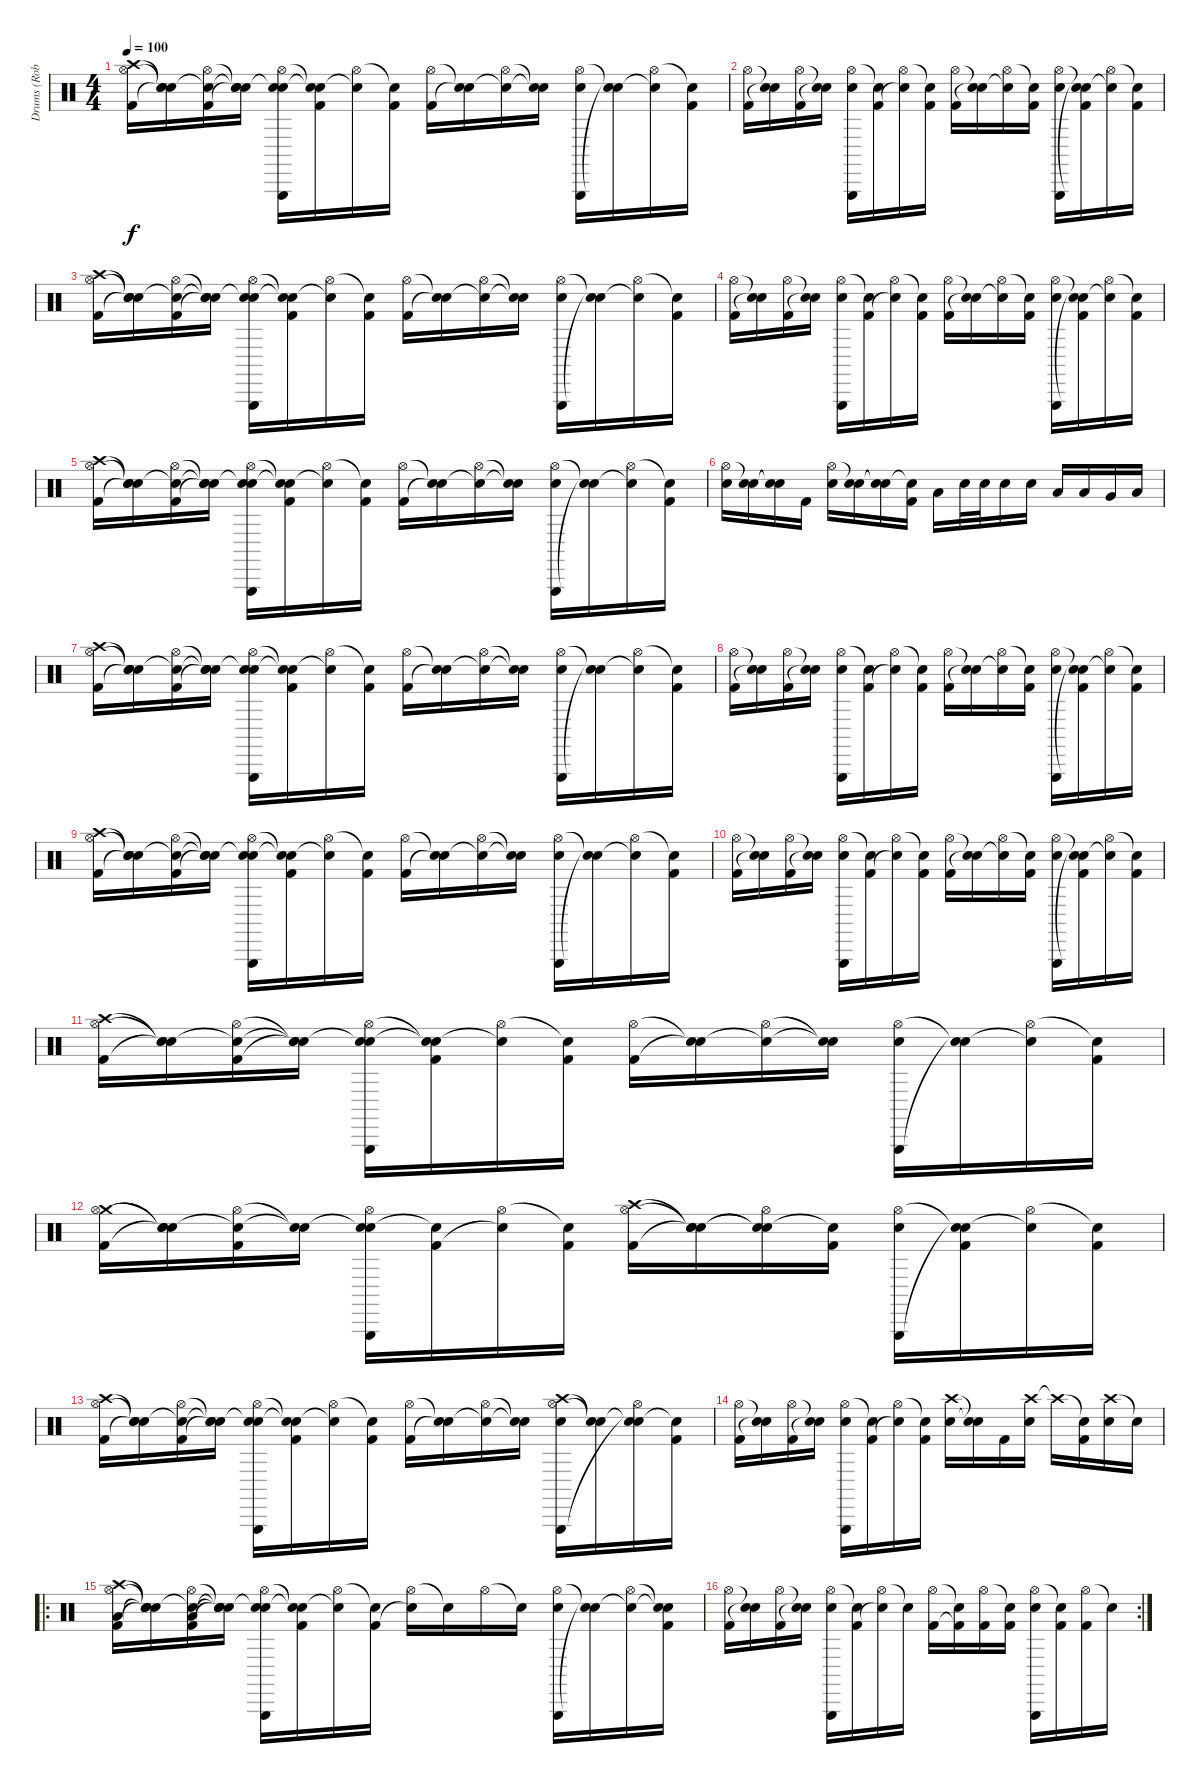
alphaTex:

\track ("Drums (Rob Bourdon)" "Drums (Rob") {instrument percussion}
\staff {score}
\articulation defaults
\ts (4 4)
\tempo 100
\clef neutral
\ks c
("Crash high (hit)" "Hi-Hat (open)" "Kick (hit) 2").16{dy f} ("Snare (hit)"{t} "Snare (hit)"{t} "Snare (hit)"{t}).16 ("Snare (hit)"{t} "Hi-Hat (open)" "Kick (hit) 2").16 ("Snare (hit)"{t} "Snare (hit)"{t} "Snare (hit)"{t}).16 ("Snare (hit)"{t} "Hi-Hat (open)" "Triangle (hit)" "Electric Snare (hit)").16 ("Snare (hit)"{t} "Snare (hit)"{t} "Kick (hit) 2").16 ("Hi-Hat (open)" "Snare (hit)"{t}).16 ("Snare (hit)"{t} "Kick (hit) 2").16 ("Hi-Hat (open)" "Kick (hit) 2").16 ("Snare (hit)"{t} "Snare (hit)"{t}).16 ("Hi-Hat (open)" "Snare (hit)"{t}).16 ("Snare (hit)"{t} "Snare (hit)"{t}).16 ("Hi-Hat (open)" "Triangle (hit)" "Electric Snare (hit)").16 ("Snare (hit)"{t} "Snare (hit)"{t}).16 ("Hi-Hat (open)" "Snare (hit)"{t}).16 ("Snare (hit)"{t} "Kick (hit) 2").16 |
("Hi-Hat (open)" "Kick (hit) 2").16 ("Snare (hit)"{t} "Snare (hit)"{t}).16 ("Hi-Hat (open)" "Kick (hit) 2").16 ("Snare (hit)"{t} "Snare (hit)"{t}).16 ("Hi-Hat (open)" "Triangle (hit)" "Electric Snare (hit)").16 ("Snare (hit)"{t} "Kick (hit) 2").16 ("Hi-Hat (open)" "Snare (hit)"{t}).16 ("Snare (hit)"{t} "Kick (hit) 2").16 ("Hi-Hat (open)" "Kick (hit) 2").16 ("Snare (hit)"{t} "Snare (hit)"{t}).16 ("Hi-Hat (open)" "Snare (hit)"{t}).16 ("Snare (hit)"{t} "Kick (hit) 2").16 ("Hi-Hat (open)" "Triangle (hit)" "Electric Snare (hit)").16 ("Snare (hit)"{t} "Snare (hit)"{t} "Kick (hit) 2").16 ("Hi-Hat (open)" "Snare (hit)"{t}).16 ("Snare (hit)"{t} "Kick (hit) 2").16 |
("Crash high (hit)" "Hi-Hat (open)" "Kick (hit) 2").16 ("Snare (hit)"{t} "Snare (hit)"{t} "Snare (hit)"{t}).16 ("Snare (hit)"{t} "Hi-Hat (open)" "Kick (hit) 2").16 ("Snare (hit)"{t} "Snare (hit)"{t} "Snare (hit)"{t}).16 ("Snare (hit)"{t} "Hi-Hat (open)" "Triangle (hit)" "Electric Snare (hit)").16 ("Snare (hit)"{t} "Snare (hit)"{t} "Kick (hit) 2").16 ("Hi-Hat (open)" "Snare (hit)"{t}).16 ("Snare (hit)"{t} "Kick (hit) 2").16 ("Hi-Hat (open)" "Kick (hit) 2").16 ("Snare (hit)"{t} "Snare (hit)"{t}).16 ("Hi-Hat (open)" "Snare (hit)"{t}).16 ("Snare (hit)"{t} "Snare (hit)"{t}).16 ("Hi-Hat (open)" "Triangle (hit)" "Electric Snare (hit)").16 ("Snare (hit)"{t} "Snare (hit)"{t}).16 ("Hi-Hat (open)" "Snare (hit)"{t}).16 ("Snare (hit)"{t} "Kick (hit) 2").16 |
("Hi-Hat (open)" "Kick (hit) 2").16 ("Snare (hit)"{t} "Snare (hit)"{t}).16 ("Hi-Hat (open)" "Kick (hit) 2").16 ("Snare (hit)"{t} "Snare (hit)"{t}).16 ("Hi-Hat (open)" "Triangle (hit)" "Electric Snare (hit)").16 ("Snare (hit)"{t} "Kick (hit) 2").16 ("Hi-Hat (open)" "Snare (hit)"{t}).16 ("Snare (hit)"{t} "Kick (hit) 2").16 ("Hi-Hat (open)" "Kick (hit) 2").16 ("Snare (hit)"{t} "Snare (hit)"{t}).16 ("Hi-Hat (open)" "Snare (hit)"{t}).16 ("Snare (hit)"{t} "Kick (hit) 2").16 ("Hi-Hat (open)" "Triangle (hit)" "Electric Snare (hit)").16 ("Snare (hit)"{t} "Snare (hit)"{t} "Kick (hit) 2").16 ("Hi-Hat (open)" "Snare (hit)"{t}).16 ("Snare (hit)"{t} "Kick (hit) 2").16 |
("Crash high (hit)" "Hi-Hat (open)" "Kick (hit) 2").16 ("Snare (hit)"{t} "Snare (hit)"{t} "Snare (hit)"{t}).16 ("Snare (hit)"{t} "Hi-Hat (open)" "Kick (hit) 2").16 ("Snare (hit)"{t} "Snare (hit)"{t} "Snare (hit)"{t}).16 ("Snare (hit)"{t} "Hi-Hat (open)" "Triangle (hit)" "Electric Snare (hit)").16 ("Snare (hit)"{t} "Snare (hit)"{t} "Kick (hit) 2").16 ("Hi-Hat (open)" "Snare (hit)"{t}).16 ("Snare (hit)"{t} "Kick (hit) 2").16 ("Hi-Hat (open)" "Kick (hit) 2").16 ("Snare (hit)"{t} "Snare (hit)"{t}).16 ("Hi-Hat (open)" "Snare (hit)"{t}).16 ("Snare (hit)"{t} "Snare (hit)"{t}).16 ("Hi-Hat (open)" "Triangle (hit)" "Electric Snare (hit)").16 ("Snare (hit)"{t} "Snare (hit)"{t}).16 ("Hi-Hat (open)" "Snare (hit)"{t}).16 ("Snare (hit)"{t} "Kick (hit) 2").16 |
("Hi-Hat (open)" "Electric Snare (hit)").16 ("Snare (hit)"{t} "Electric Snare (hit)").16 ("Snare (hit)"{t} "Snare (hit)"{t}).16 "Kick (hit) 2".16 ("Hi-Hat (open)" "Electric Snare (hit)").16 ("Snare (hit)"{t} "Electric Snare (hit)").16 ("Snare (hit)"{t} "Snare (hit)"{t}).16 ("Snare (hit)"{t} "Kick (hit) 2").16 "Low Tom (hit)".16 "Electric Snare (hit)".32 "Electric Snare (hit)".32 "Electric Snare (hit)".16 "Electric Snare (hit)".16 "Low Tom (hit)".16 "Low Tom (hit)".16 "Very Low Tom (hit)".16 "Low Floor Tom (hit)".16 |
("Crash high (hit)" "Hi-Hat (open)" "Kick (hit) 2").16 ("Snare (hit)"{t} "Snare (hit)"{t} "Snare (hit)"{t}).16 ("Snare (hit)"{t} "Hi-Hat (open)" "Kick (hit) 2").16 ("Snare (hit)"{t} "Snare (hit)"{t} "Snare (hit)"{t}).16 ("Snare (hit)"{t} "Hi-Hat (open)" "Triangle (hit)" "Electric Snare (hit)").16 ("Snare (hit)"{t} "Snare (hit)"{t} "Kick (hit) 2").16 ("Hi-Hat (open)" "Snare (hit)"{t}).16 ("Snare (hit)"{t} "Kick (hit) 2").16 ("Hi-Hat (open)" "Kick (hit) 2").16 ("Snare (hit)"{t} "Snare (hit)"{t}).16 ("Hi-Hat (open)" "Snare (hit)"{t}).16 ("Snare (hit)"{t} "Snare (hit)"{t}).16 ("Hi-Hat (open)" "Triangle (hit)" "Electric Snare (hit)").16 ("Snare (hit)"{t} "Snare (hit)"{t}).16 ("Hi-Hat (open)" "Snare (hit)"{t}).16 ("Snare (hit)"{t} "Kick (hit) 2").16 |
("Hi-Hat (open)" "Kick (hit) 2").16 ("Snare (hit)"{t} "Snare (hit)"{t}).16 ("Hi-Hat (open)" "Kick (hit) 2").16 ("Snare (hit)"{t} "Snare (hit)"{t}).16 ("Hi-Hat (open)" "Triangle (hit)" "Electric Snare (hit)").16 ("Snare (hit)"{t} "Kick (hit) 2").16 ("Hi-Hat (open)" "Snare (hit)"{t}).16 ("Snare (hit)"{t} "Kick (hit) 2").16 ("Hi-Hat (open)" "Kick (hit) 2").16 ("Snare (hit)"{t} "Snare (hit)"{t}).16 ("Hi-Hat (open)" "Snare (hit)"{t}).16 ("Snare (hit)"{t} "Kick (hit) 2").16 ("Hi-Hat (open)" "Triangle (hit)" "Electric Snare (hit)").16 ("Snare (hit)"{t} "Snare (hit)"{t} "Kick (hit) 2").16 ("Hi-Hat (open)" "Snare (hit)"{t}).16 ("Snare (hit)"{t} "Kick (hit) 2").16 |
("Crash high (hit)" "Hi-Hat (open)" "Kick (hit) 2").16 ("Snare (hit)"{t} "Snare (hit)"{t} "Snare (hit)"{t}).16 ("Snare (hit)"{t} "Hi-Hat (open)" "Kick (hit) 2").16 ("Snare (hit)"{t} "Snare (hit)"{t} "Snare (hit)"{t}).16 ("Snare (hit)"{t} "Hi-Hat (open)" "Triangle (hit)" "Electric Snare (hit)").16 ("Snare (hit)"{t} "Snare (hit)"{t} "Kick (hit) 2").16 ("Hi-Hat (open)" "Snare (hit)"{t}).16 ("Snare (hit)"{t} "Kick (hit) 2").16 ("Hi-Hat (open)" "Kick (hit) 2").16 ("Snare (hit)"{t} "Snare (hit)"{t}).16 ("Hi-Hat (open)" "Snare (hit)"{t}).16 ("Snare (hit)"{t} "Snare (hit)"{t}).16 ("Hi-Hat (open)" "Triangle (hit)" "Electric Snare (hit)").16 ("Snare (hit)"{t} "Snare (hit)"{t}).16 ("Hi-Hat (open)" "Snare (hit)"{t}).16 ("Snare (hit)"{t} "Kick (hit) 2").16 |
("Hi-Hat (open)" "Kick (hit) 2").16 ("Snare (hit)"{t} "Snare (hit)"{t}).16 ("Hi-Hat (open)" "Kick (hit) 2").16 ("Snare (hit)"{t} "Snare (hit)"{t}).16 ("Hi-Hat (open)" "Triangle (hit)" "Electric Snare (hit)").16 ("Snare (hit)"{t} "Kick (hit) 2").16 ("Hi-Hat (open)" "Snare (hit)"{t}).16 ("Snare (hit)"{t} "Kick (hit) 2").16 ("Hi-Hat (open)" "Kick (hit) 2").16 ("Snare (hit)"{t} "Snare (hit)"{t}).16 ("Hi-Hat (open)" "Snare (hit)"{t}).16 ("Snare (hit)"{t} "Kick (hit) 2").16 ("Hi-Hat (open)" "Triangle (hit)" "Electric Snare (hit)").16 ("Snare (hit)"{t} "Snare (hit)"{t} "Kick (hit) 2").16 ("Hi-Hat (open)" "Snare (hit)"{t}).16 ("Snare (hit)"{t} "Kick (hit) 2").16 |
("Crash high (hit)" "Hi-Hat (open)" "Kick (hit) 2").16 ("Snare (hit)"{t} "Snare (hit)"{t} "Snare (hit)"{t}).16 ("Snare (hit)"{t} "Hi-Hat (open)" "Kick (hit) 2").16 ("Snare (hit)"{t} "Snare (hit)"{t} "Snare (hit)"{t}).16 ("Snare (hit)"{t} "Hi-Hat (open)" "Triangle (hit)" "Electric Snare (hit)").16 ("Snare (hit)"{t} "Snare (hit)"{t} "Kick (hit) 2").16 ("Hi-Hat (open)" "Snare (hit)"{t}).16 ("Snare (hit)"{t} "Kick (hit) 2").16 ("Hi-Hat (open)" "Kick (hit) 2").16 ("Snare (hit)"{t} "Snare (hit)"{t}).16 ("Hi-Hat (open)" "Snare (hit)"{t}).16 ("Snare (hit)"{t} "Snare (hit)"{t}).16 ("Hi-Hat (open)" "Triangle (hit)" "Electric Snare (hit)").16 ("Snare (hit)"{t} "Snare (hit)"{t}).16 ("Hi-Hat (open)" "Snare (hit)"{t}).16 ("Snare (hit)"{t} "Kick (hit) 2").16 |
("Crash medium (hit)" "Hi-Hat (open)" "Kick (hit) 2").16 ("Snare (hit)"{t} "Snare (hit)"{t} "Snare (hit)"{t}).16 ("Snare (hit)"{t} "Hi-Hat (open)" "Kick (hit) 2").16 ("Snare (hit)"{t} "Snare (hit)"{t}).16 ("Snare (hit)"{t} "Hi-Hat (open)" "Triangle (hit)" "Electric Snare (hit)").16 ("Snare (hit)"{t} "Kick (hit) 2").16 ("Hi-Hat (open)" "Snare (hit)"{t}).16 ("Snare (hit)"{t} "Kick (hit) 2").16 ("Crash high (hit)" "Hi-Hat (open)" "Kick (hit) 2").16 ("Snare (hit)"{t} "Snare (hit)"{t} "Snare (hit)"{t}).16 ("Snare (hit)"{t} "Hi-Hat (open)" "Snare (hit)"{t}).16 ("Snare (hit)"{t} "Kick (hit) 2").16 ("Hi-Hat (open)" "Triangle (hit)" "Electric Snare (hit)").16 ("Snare (hit)"{t} "Snare (hit)"{t} "Kick (hit) 2").16 ("Hi-Hat (open)" "Snare (hit)"{t}).16 ("Snare (hit)"{t} "Kick (hit) 2").16 |
("Crash high (hit)" "Hi-Hat (open)" "Kick (hit) 2").16 ("Snare (hit)"{t} "Snare (hit)"{t} "Snare (hit)"{t}).16 ("Snare (hit)"{t} "Hi-Hat (open)" "Kick (hit) 2").16 ("Snare (hit)"{t} "Snare (hit)"{t} "Snare (hit)"{t}).16 ("Snare (hit)"{t} "Hi-Hat (open)" "Triangle (hit)" "Electric Snare (hit)").16 ("Snare (hit)"{t} "Snare (hit)"{t} "Kick (hit) 2").16 ("Hi-Hat (open)" "Snare (hit)"{t}).16 ("Snare (hit)"{t} "Kick (hit) 2").16 ("Hi-Hat (open)" "Kick (hit) 2").16 ("Snare (hit)"{t} "Snare (hit)"{t}).16 ("Hi-Hat (open)" "Snare (hit)"{t}).16 ("Snare (hit)"{t} "Snare (hit)"{t}).16 ("Crash high (hit)" "Hi-Hat (open)" "Triangle (hit)" "Electric Snare (hit)").16 ("Snare (hit)"{t} "Snare (hit)"{t}).16 ("Snare (hit)"{t} "Hi-Hat (open)" "Snare (hit)"{t}).16 ("Snare (hit)"{t} "Kick (hit) 2").16 |
("Hi-Hat (open)" "Kick (hit) 2").16 ("Snare (hit)"{t} "Snare (hit)"{t}).16 ("Hi-Hat (open)" "Kick (hit) 2").16 ("Snare (hit)"{t} "Snare (hit)"{t}).16 ("Hi-Hat (open)" "Triangle (hit)" "Electric Snare (hit)").16 ("Snare (hit)"{t} "Kick (hit) 2").16 ("Hi-Hat (open)" "Snare (hit)"{t}).16 ("Snare (hit)"{t} "Kick (hit) 2").16 ("Crash high (hit)" "Electric Snare (hit)").16 ("Snare (hit)"{t} "Snare (hit)"{t}).16 "Kick (hit) 2".16 ("Crash high (hit)" "Electric Snare (hit)").16 "Crash high (hit)"{t}.16 ("Snare (hit)"{t} "Kick (hit) 2").16 ("Crash high (hit)" "Electric Snare (hit)").16 "Snare (hit)"{t}.16 |
\ro
("Crash high (hit)" "Hi-Hat (open)" "Low Tom (hit)" "Kick (hit) 2").16 ("Snare (hit)"{t} "Snare (hit)"{t} "Snare (hit)"{t} "Snare (hit)"{t}).16 ("Snare (hit)"{t} "Hi-Hat (open)" "Low Tom (hit)" "Kick (hit) 2").16 ("Snare (hit)"{t} "Snare (hit)"{t} "Snare (hit)"{t} "Snare (hit)"{t}).16 ("Snare (hit)"{t} "Hi-Hat (open)" "Triangle (hit)" "Electric Snare (hit)").16 ("Snare (hit)"{t} "Snare (hit)"{t} "Kick (hit) 2").16 ("Hi-Hat (open)" "Snare (hit)"{t}).16 ("Snare (hit)"{t} "Kick (hit) 2").16 ("Hi-Hat (open)" "Snare (hit)"{t}).16 "Snare (hit)"{t}.16 "Hi-Hat (open)".16 "Snare (hit)"{t}.16 ("Hi-Hat (open)" "Triangle (hit)" "Electric Snare (hit)").16 ("Snare (hit)"{t} "Snare (hit)"{t}).16 ("Hi-Hat (open)" "Snare (hit)"{t}).16 ("Snare (hit)"{t} "Snare (hit)"{t} "Kick (hit) 2").16 |
\rc 2
("Hi-Hat (open)" "Kick (hit) 2").16 ("Snare (hit)"{t} "Snare (hit)"{t}).16 ("Hi-Hat (open)" "Kick (hit) 2").16 ("Snare (hit)"{t} "Snare (hit)"{t}).16 ("Hi-Hat (open)" "Triangle (hit)" "Electric Snare (hit)").16 ("Snare (hit)"{t} "Kick (hit) 2").16 ("Hi-Hat (open)" "Snare (hit)"{t}).16 "Snare (hit)"{t}.16 ("Hi-Hat (open)" "Kick (hit) 2").16 ("Snare (hit)"{t} "Kick (hit) 2"{t}).16 ("Hi-Hat (open)" "Kick (hit) 2").16 ("Snare (hit)"{t} "Kick (hit) 2").16 ("Hi-Hat (open)" "Triangle (hit)" "Electric Snare (hit)").16 ("Snare (hit)"{t} "Kick (hit) 2").16 ("Hi-Hat (open)" "Kick (hit) 2").16 "Snare (hit)"{t}.16
